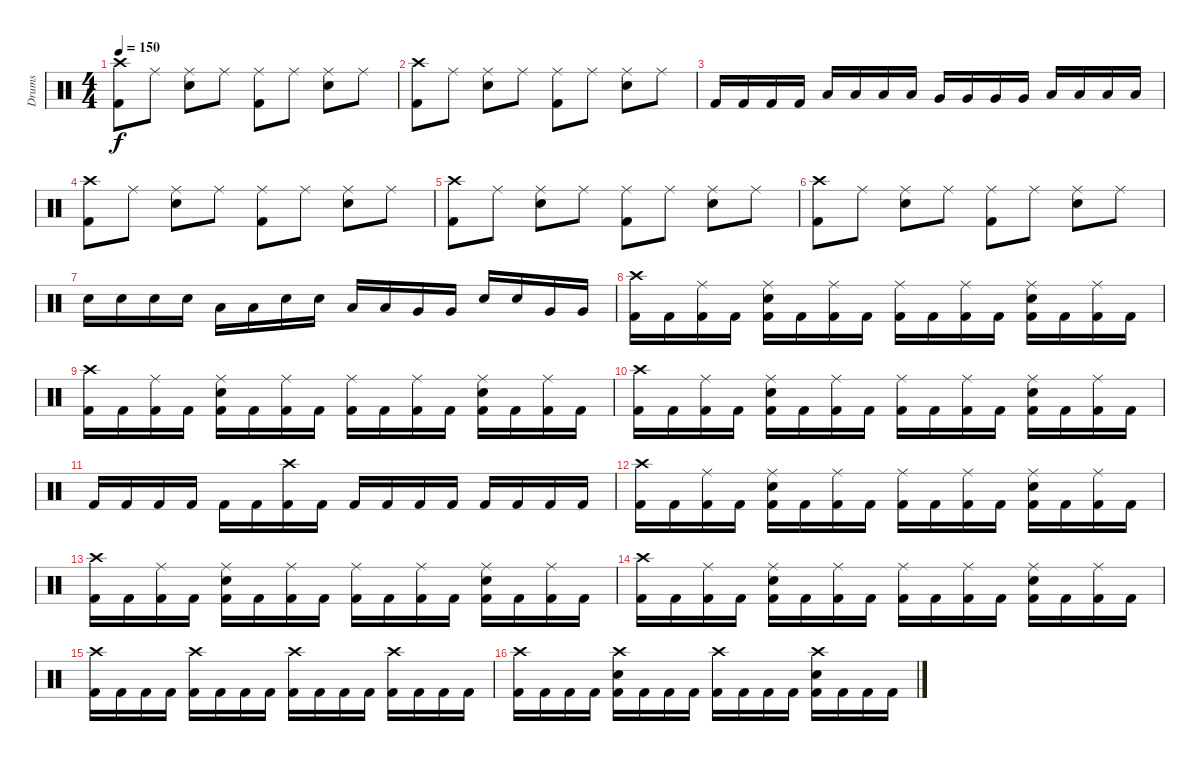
\track ("Drums" "Drums") {instrument percussion}
\staff {score}
\articulation defaults
\ts (4 4)
\tempo 150
\clef neutral
\ks c
("Crash high (hit)" "Kick (hit) 2").8{dy f} "Ride (middle)".8 ("Ride (middle)" "Snare (hit) 2").8 "Ride (middle)".8 ("Ride (middle)" "Kick (hit) 2").8 "Ride (middle)".8 ("Ride (middle)" "Snare (hit) 2").8 "Ride (middle)".8 |
("Crash high (hit)" "Kick (hit) 2").8 "Ride (middle)".8 ("Ride (middle)" "Snare (hit) 2").8 "Ride (middle)".8 ("Ride (middle)" "Kick (hit) 2").8 "Ride (middle)".8 ("Ride (middle)" "Snare (hit) 2").8 "Ride (middle)".8 |
"Kick (hit) 2".16 "Kick (hit) 2".16 "Kick (hit) 2".16 "Kick (hit) 2".16 "Low Tom (hit)".16 "Low Tom (hit)".16 "Low Tom (hit)".16 "Low Tom (hit)".16 "Very Low Tom (hit)".16 "Very Low Tom (hit)".16 "Very Low Tom (hit)".16 "Very Low Tom (hit)".16 "Low Floor Tom (hit)".16 "Low Floor Tom (hit)".16 "Low Floor Tom (hit)".16 "Low Floor Tom (hit)".16 |
("Crash high (hit)" "Kick (hit) 2").8 "Ride (middle)".8 ("Ride (middle)" "Snare (hit) 2").8 "Ride (middle)".8 ("Ride (middle)" "Kick (hit) 2").8 "Ride (middle)".8 ("Ride (middle)" "Snare (hit) 2").8 "Ride (middle)".8 |
("Crash high (hit)" "Kick (hit) 2").8 "Ride (middle)".8 ("Ride (middle)" "Snare (hit) 2").8 "Ride (middle)".8 ("Ride (middle)" "Kick (hit) 2").8 "Ride (middle)".8 ("Ride (middle)" "Snare (hit) 2").8 "Ride (middle)".8 |
("Crash high (hit)" "Kick (hit) 2").8 "Ride (middle)".8 ("Ride (middle)" "Snare (hit) 2").8 "Ride (middle)".8 ("Ride (middle)" "Kick (hit) 2").8 "Ride (middle)".8 ("Ride (middle)" "Snare (hit) 2").8 "Ride (middle)".8 |
"Snare (hit) 2".16 "Snare (hit) 2".16 "Snare (hit) 2".16 "Snare (hit) 2".16 "Low Tom (hit)".16 "Low Tom (hit)".16 "Snare (hit) 2".16 "Snare (hit) 2".16 "Low Tom (hit)".16 "Low Tom (hit)".16 "Very Low Tom (hit)".16 "Very Low Tom (hit)".16 "Snare (hit) 2".16 "Snare (hit) 2".16 "Very Low Tom (hit)".16 "Very Low Tom (hit)".16 |
("Crash high (hit)" "Kick (hit) 2").16 "Kick (hit) 2".16 ("Ride (middle)" "Kick (hit) 2").16 "Kick (hit) 2".16 ("Ride (middle)" "Snare (hit) 2" "Kick (hit) 2").16 "Kick (hit) 2".16 ("Ride (middle)" "Kick (hit) 2").16 "Kick (hit) 2".16 ("Ride (middle)" "Kick (hit) 2").16 "Kick (hit) 2".16 ("Ride (middle)" "Kick (hit) 2").16 "Kick (hit) 2".16 ("Ride (middle)" "Snare (hit) 2" "Kick (hit) 2").16 "Kick (hit) 2".16 ("Ride (middle)" "Kick (hit) 2").16 "Kick (hit) 2".16 |
("Crash high (hit)" "Kick (hit) 2").16 "Kick (hit) 2".16 ("Ride (middle)" "Kick (hit) 2").16 "Kick (hit) 2".16 ("Ride (middle)" "Snare (hit) 2" "Kick (hit) 2").16 "Kick (hit) 2".16 ("Ride (middle)" "Kick (hit) 2").16 "Kick (hit) 2".16 ("Ride (middle)" "Kick (hit) 2").16 "Kick (hit) 2".16 ("Ride (middle)" "Kick (hit) 2").16 "Kick (hit) 2".16 ("Ride (middle)" "Snare (hit) 2" "Kick (hit) 2").16 "Kick (hit) 2".16 ("Ride (middle)" "Kick (hit) 2").16 "Kick (hit) 2".16 |
("Crash high (hit)" "Kick (hit) 2").16 "Kick (hit) 2".16 ("Ride (middle)" "Kick (hit) 2").16 "Kick (hit) 2".16 ("Ride (middle)" "Snare (hit) 2" "Kick (hit) 2").16 "Kick (hit) 2".16 ("Ride (middle)" "Kick (hit) 2").16 "Kick (hit) 2".16 ("Ride (middle)" "Kick (hit) 2").16 "Kick (hit) 2".16 ("Ride (middle)" "Kick (hit) 2").16 "Kick (hit) 2".16 ("Ride (middle)" "Snare (hit) 2" "Kick (hit) 2").16 "Kick (hit) 2".16 ("Ride (middle)" "Kick (hit) 2").16 "Kick (hit) 2".16 |
"Kick (hit) 2".16 "Kick (hit) 2".16 "Kick (hit) 2".16 "Kick (hit) 2".16 "Kick (hit) 2".16 "Kick (hit) 2".16 ("Crash high (hit)" "Kick (hit) 2").16 "Kick (hit) 2".16 "Kick (hit) 2".16 "Kick (hit) 2".16 "Kick (hit) 2".16 "Kick (hit) 2".16 "Kick (hit) 2".16 "Kick (hit) 2".16 "Kick (hit) 2".16 "Kick (hit) 2".16 |
("Crash high (hit)" "Kick (hit) 2").16 "Kick (hit) 2".16 ("Ride (middle)" "Kick (hit) 2").16 "Kick (hit) 2".16 ("Ride (middle)" "Snare (hit) 2" "Kick (hit) 2").16 "Kick (hit) 2".16 ("Ride (middle)" "Kick (hit) 2").16 "Kick (hit) 2".16 ("Ride (middle)" "Kick (hit) 2").16 "Kick (hit) 2".16 ("Ride (middle)" "Kick (hit) 2").16 "Kick (hit) 2".16 ("Ride (middle)" "Snare (hit) 2" "Kick (hit) 2").16 "Kick (hit) 2".16 ("Ride (middle)" "Kick (hit) 2").16 "Kick (hit) 2".16 |
("Crash high (hit)" "Kick (hit) 2").16 "Kick (hit) 2".16 ("Ride (middle)" "Kick (hit) 2").16 "Kick (hit) 2".16 ("Ride (middle)" "Snare (hit) 2" "Kick (hit) 2").16 "Kick (hit) 2".16 ("Ride (middle)" "Kick (hit) 2").16 "Kick (hit) 2".16 ("Ride (middle)" "Kick (hit) 2").16 "Kick (hit) 2".16 ("Ride (middle)" "Kick (hit) 2").16 "Kick (hit) 2".16 ("Ride (middle)" "Snare (hit) 2" "Kick (hit) 2").16 "Kick (hit) 2".16 ("Ride (middle)" "Kick (hit) 2").16 "Kick (hit) 2".16 |
("Crash high (hit)" "Kick (hit) 2").16 "Kick (hit) 2".16 ("Ride (middle)" "Kick (hit) 2").16 "Kick (hit) 2".16 ("Ride (middle)" "Snare (hit) 2" "Kick (hit) 2").16 "Kick (hit) 2".16 ("Ride (middle)" "Kick (hit) 2").16 "Kick (hit) 2".16 ("Ride (middle)" "Kick (hit) 2").16 "Kick (hit) 2".16 ("Ride (middle)" "Kick (hit) 2").16 "Kick (hit) 2".16 ("Ride (middle)" "Snare (hit) 2" "Kick (hit) 2").16 "Kick (hit) 2".16 ("Ride (middle)" "Kick (hit) 2").16 "Kick (hit) 2".16 |
("Crash high (hit)" "Kick (hit) 2").16 "Kick (hit) 2".16 "Kick (hit) 2".16 "Kick (hit) 2".16 ("Crash high (hit)" "Kick (hit) 2").16 "Kick (hit) 2".16 "Kick (hit) 2".16 "Kick (hit) 2".16 ("Crash high (hit)" "Kick (hit) 2").16 "Kick (hit) 2".16 "Kick (hit) 2".16 "Kick (hit) 2".16 ("Crash high (hit)" "Kick (hit) 2").16 "Kick (hit) 2".16 "Kick (hit) 2".16 "Kick (hit) 2".16 |
("Crash high (hit)" "Kick (hit) 2").16 "Kick (hit) 2".16 "Kick (hit) 2".16 "Kick (hit) 2".16 ("Crash high (hit)" "Snare (hit) 2" "Kick (hit) 2").16 "Kick (hit) 2".16 "Kick (hit) 2".16 "Kick (hit) 2".16 ("Crash high (hit)" "Kick (hit) 2").16 "Kick (hit) 2".16 "Kick (hit) 2".16 "Kick (hit) 2".16 ("Crash high (hit)" "Snare (hit) 2" "Kick (hit) 2").16 "Kick (hit) 2".16 "Kick (hit) 2".16 "Kick (hit) 2".16
